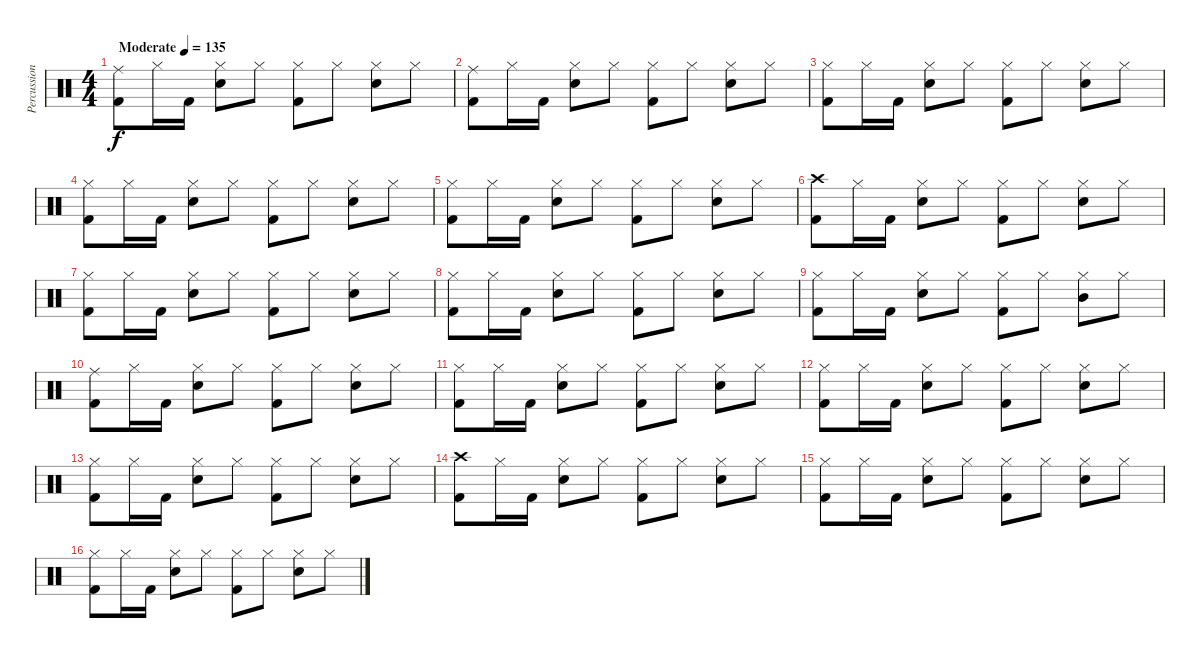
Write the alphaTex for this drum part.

\track ("Percussion" "Percussion") {instrument percussion}
\staff {score}
\articulation defaults
\ts (4 4)
\tempo (135 "Moderate")
\clef neutral
\ks c
("Ride (middle)" "Kick (hit) 2").8{dy f} "Hi-Hat (closed)".16 "Kick (hit) 2".16 ("Hi-Hat (closed)" "Snare (hit) 2").8 "Hi-Hat (closed)".8 ("Hi-Hat (closed)" "Kick (hit) 2").8 "Hi-Hat (closed)".8 ("Hi-Hat (closed)" "Snare (hit) 2").8 "Hi-Hat (closed)".8 |
("Ride (middle)" "Kick (hit) 2").8 "Hi-Hat (closed)".16 "Kick (hit) 2".16 ("Hi-Hat (closed)" "Snare (hit) 2").8 "Hi-Hat (closed)".8 ("Hi-Hat (closed)" "Kick (hit) 2").8 "Hi-Hat (closed)".8 ("Hi-Hat (closed)" "Snare (hit) 2").8 "Hi-Hat (closed)".8 |
("Hi-Hat (closed)" "Kick (hit) 2").8 "Hi-Hat (closed)".16 "Kick (hit) 2".16 ("Hi-Hat (closed)" "Snare (hit) 2").8 "Hi-Hat (closed)".8 ("Hi-Hat (closed)" "Kick (hit) 2").8 "Hi-Hat (closed)".8 ("Hi-Hat (closed)" "Snare (hit) 2").8 "Hi-Hat (closed)".8 |
("Hi-Hat (closed)" "Kick (hit) 2").8 "Hi-Hat (closed)".16 "Kick (hit) 2".16 ("Hi-Hat (closed)" "Snare (hit) 2").8 "Hi-Hat (closed)".8 ("Hi-Hat (closed)" "Kick (hit) 2").8 "Hi-Hat (closed)".8 ("Hi-Hat (closed)" "Snare (hit) 2").8 "Hi-Hat (closed)".8 |
("Hi-Hat (closed)" "Kick (hit) 2").8 "Hi-Hat (closed)".16 "Kick (hit) 2".16 ("Hi-Hat (closed)" "Snare (hit) 2").8 "Hi-Hat (closed)".8 ("Hi-Hat (closed)" "Kick (hit) 2").8 "Hi-Hat (closed)".8 ("Hi-Hat (closed)" "Snare (hit) 2").8 "Hi-Hat (closed)".8 |
("Crash high (hit)" "Kick (hit) 2").8 "Hi-Hat (closed)".16 "Kick (hit) 2".16 ("Hi-Hat (closed)" "Snare (hit) 2").8 "Hi-Hat (closed)".8 ("Hi-Hat (closed)" "Kick (hit) 2").8 "Hi-Hat (closed)".8 ("Hi-Hat (closed)" "Snare (hit) 2").8 "Hi-Hat (closed)".8 |
("Hi-Hat (closed)" "Kick (hit) 2").8 "Hi-Hat (closed)".16 "Kick (hit) 2".16 ("Hi-Hat (closed)" "Snare (hit) 2").8 "Hi-Hat (closed)".8 ("Hi-Hat (closed)" "Kick (hit) 2").8 "Hi-Hat (closed)".8 ("Hi-Hat (closed)" "Snare (hit) 2").8 "Hi-Hat (closed)".8 |
("Hi-Hat (closed)" "Kick (hit) 2").8 "Hi-Hat (closed)".16 "Kick (hit) 2".16 ("Hi-Hat (closed)" "Snare (hit) 2").8 "Hi-Hat (closed)".8 ("Hi-Hat (closed)" "Kick (hit) 2").8 "Hi-Hat (closed)".8 ("Hi-Hat (closed)" "Snare (hit) 2").8 "Hi-Hat (closed)".8 |
("Hi-Hat (closed)" "Kick (hit) 2").8 "Hi-Hat (closed)".16 "Kick (hit) 2".16 ("Hi-Hat (closed)" "Snare (hit) 2").8 "Hi-Hat (closed)".8 ("Hi-Hat (closed)" "Kick (hit) 2").8 "Hi-Hat (closed)".8 ("Hi-Hat (closed)" "Mid Tom (hit)").8 "Hi-Hat (closed)".8 |
("Ride (middle)" "Kick (hit) 2").8 "Hi-Hat (closed)".16 "Kick (hit) 2".16 ("Hi-Hat (closed)" "Snare (hit) 2").8 "Hi-Hat (closed)".8 ("Hi-Hat (closed)" "Kick (hit) 2").8 "Hi-Hat (closed)".8 ("Hi-Hat (closed)" "Snare (hit) 2").8 "Hi-Hat (closed)".8 |
("Hi-Hat (closed)" "Kick (hit) 2").8 "Hi-Hat (closed)".16 "Kick (hit) 2".16 ("Hi-Hat (closed)" "Snare (hit) 2").8 "Hi-Hat (closed)".8 ("Hi-Hat (closed)" "Kick (hit) 2").8 "Hi-Hat (closed)".8 ("Hi-Hat (closed)" "Snare (hit) 2").8 "Hi-Hat (closed)".8 |
("Hi-Hat (closed)" "Kick (hit) 2").8 "Hi-Hat (closed)".16 "Kick (hit) 2".16 ("Hi-Hat (closed)" "Snare (hit) 2").8 "Hi-Hat (closed)".8 ("Hi-Hat (closed)" "Kick (hit) 2").8 "Hi-Hat (closed)".8 ("Hi-Hat (closed)" "Snare (hit) 2").8 "Hi-Hat (closed)".8 |
("Hi-Hat (closed)" "Kick (hit) 2").8 "Hi-Hat (closed)".16 "Kick (hit) 2".16 ("Hi-Hat (closed)" "Snare (hit) 2").8 "Hi-Hat (closed)".8 ("Hi-Hat (closed)" "Kick (hit) 2").8 "Hi-Hat (closed)".8 ("Hi-Hat (closed)" "Snare (hit) 2").8 "Hi-Hat (closed)".8 |
("Crash high (hit)" "Kick (hit) 2").8 "Hi-Hat (closed)".16 "Kick (hit) 2".16 ("Hi-Hat (closed)" "Snare (hit) 2").8 "Hi-Hat (closed)".8 ("Hi-Hat (closed)" "Kick (hit) 2").8 "Hi-Hat (closed)".8 ("Hi-Hat (closed)" "Snare (hit) 2").8 "Hi-Hat (closed)".8 |
("Hi-Hat (closed)" "Kick (hit) 2").8 "Hi-Hat (closed)".16 "Kick (hit) 2".16 ("Hi-Hat (closed)" "Snare (hit) 2").8 "Hi-Hat (closed)".8 ("Hi-Hat (closed)" "Kick (hit) 2").8 "Hi-Hat (closed)".8 ("Hi-Hat (closed)" "Snare (hit) 2").8 "Hi-Hat (closed)".8 |
("Hi-Hat (closed)" "Kick (hit) 2").8 "Hi-Hat (closed)".16 "Kick (hit) 2".16 ("Hi-Hat (closed)" "Snare (hit) 2").8 "Hi-Hat (closed)".8 ("Hi-Hat (closed)" "Kick (hit) 2").8 "Hi-Hat (closed)".8 ("Hi-Hat (closed)" "Snare (hit) 2").8 "Hi-Hat (closed)".8
